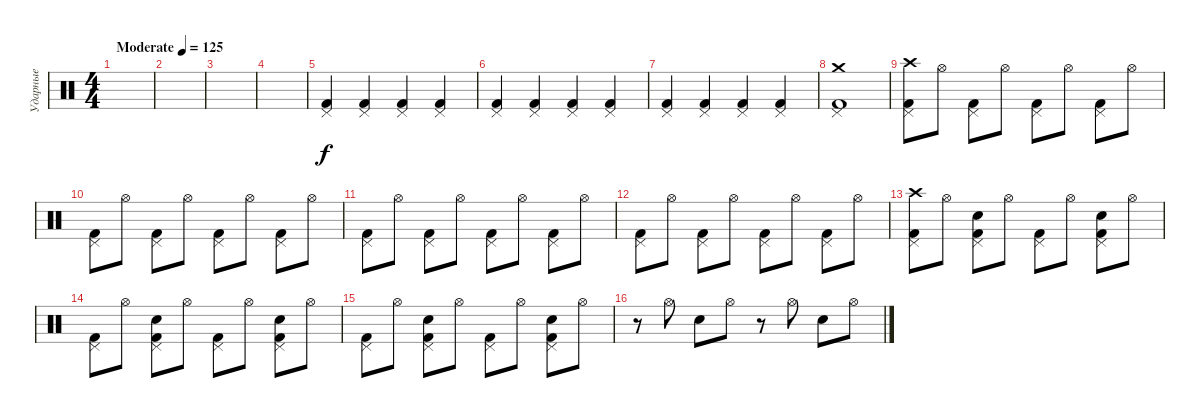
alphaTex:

\track ("Ударные" "Ударные") {instrument percussion}
\staff {score}
\articulation defaults
\ts (4 4)
\tempo (125 "Moderate")
\clef neutral
\ks c
|
|
|
|
("Kick (hit) 2" "Pedal Hi-Hat (hit)").4 ("Kick (hit) 2" "Pedal Hi-Hat (hit)").4 ("Kick (hit) 2" "Pedal Hi-Hat (hit)").4 ("Kick (hit) 2" "Pedal Hi-Hat (hit)").4 |
("Kick (hit) 2" "Pedal Hi-Hat (hit)").4 ("Kick (hit) 2" "Pedal Hi-Hat (hit)").4 ("Kick (hit) 2" "Pedal Hi-Hat (hit)").4 ("Kick (hit) 2" "Pedal Hi-Hat (hit)").4 |
("Kick (hit) 2" "Pedal Hi-Hat (hit)").4 ("Kick (hit) 2" "Pedal Hi-Hat (hit)").4 ("Kick (hit) 2" "Pedal Hi-Hat (hit)").4 ("Kick (hit) 2" "Pedal Hi-Hat (hit)").4 |
("Kick (hit) 2" "Pedal Hi-Hat (hit)" "Crash medium (hit)").1 |
("Kick (hit) 2" "Pedal Hi-Hat (hit)" "Crash high (hit)").8 "Hi-Hat (open)".8 ("Kick (hit) 2" "Pedal Hi-Hat (hit)").8 "Hi-Hat (open)".8 ("Kick (hit) 2" "Pedal Hi-Hat (hit)").8 "Hi-Hat (open)".8 ("Kick (hit) 2" "Pedal Hi-Hat (hit)").8 "Hi-Hat (open)".8 |
("Kick (hit) 2" "Pedal Hi-Hat (hit)").8 "Hi-Hat (open)".8 ("Kick (hit) 2" "Pedal Hi-Hat (hit)").8 "Hi-Hat (open)".8 ("Kick (hit) 2" "Pedal Hi-Hat (hit)").8 "Hi-Hat (open)".8 ("Kick (hit) 2" "Pedal Hi-Hat (hit)").8 "Hi-Hat (open)".8 |
("Kick (hit) 2" "Pedal Hi-Hat (hit)").8 "Hi-Hat (open)".8 ("Kick (hit) 2" "Pedal Hi-Hat (hit)").8 "Hi-Hat (open)".8 ("Kick (hit) 2" "Pedal Hi-Hat (hit)").8 "Hi-Hat (open)".8 ("Kick (hit) 2" "Pedal Hi-Hat (hit)").8 "Hi-Hat (open)".8 |
("Kick (hit) 2" "Pedal Hi-Hat (hit)").8 "Hi-Hat (open)".8 ("Kick (hit) 2" "Pedal Hi-Hat (hit)").8 "Hi-Hat (open)".8 ("Kick (hit) 2" "Pedal Hi-Hat (hit)").8 "Hi-Hat (open)".8 ("Kick (hit) 2" "Pedal Hi-Hat (hit)").8 "Hi-Hat (open)".8 |
("Kick (hit) 2" "Pedal Hi-Hat (hit)" "Crash high (hit)").8 "Hi-Hat (open)".8 ("Kick (hit) 2" "Pedal Hi-Hat (hit)" "Hand Clap (hit)").8 "Hi-Hat (open)".8 ("Kick (hit) 2" "Pedal Hi-Hat (hit)").8 "Hi-Hat (open)".8 ("Kick (hit) 2" "Pedal Hi-Hat (hit)" "Hand Clap (hit)").8 "Hi-Hat (open)".8 |
("Kick (hit) 2" "Pedal Hi-Hat (hit)").8 "Hi-Hat (open)".8 ("Kick (hit) 2" "Pedal Hi-Hat (hit)" "Hand Clap (hit)").8 "Hi-Hat (open)".8 ("Kick (hit) 2" "Pedal Hi-Hat (hit)").8 "Hi-Hat (open)".8 ("Kick (hit) 2" "Pedal Hi-Hat (hit)" "Hand Clap (hit)").8 "Hi-Hat (open)".8 |
("Kick (hit) 2" "Pedal Hi-Hat (hit)").8 "Hi-Hat (open)".8 ("Kick (hit) 2" "Pedal Hi-Hat (hit)" "Hand Clap (hit)").8 "Hi-Hat (open)".8 ("Kick (hit) 2" "Pedal Hi-Hat (hit)").8 "Hi-Hat (open)".8 ("Kick (hit) 2" "Pedal Hi-Hat (hit)" "Hand Clap (hit)").8 "Hi-Hat (open)".8 |
r.8 "Hi-Hat (open)".8 "Hand Clap (hit)".8 "Hi-Hat (open)".8 r.8 "Hi-Hat (open)".8 "Hand Clap (hit)".8 "Hi-Hat (open)".8
